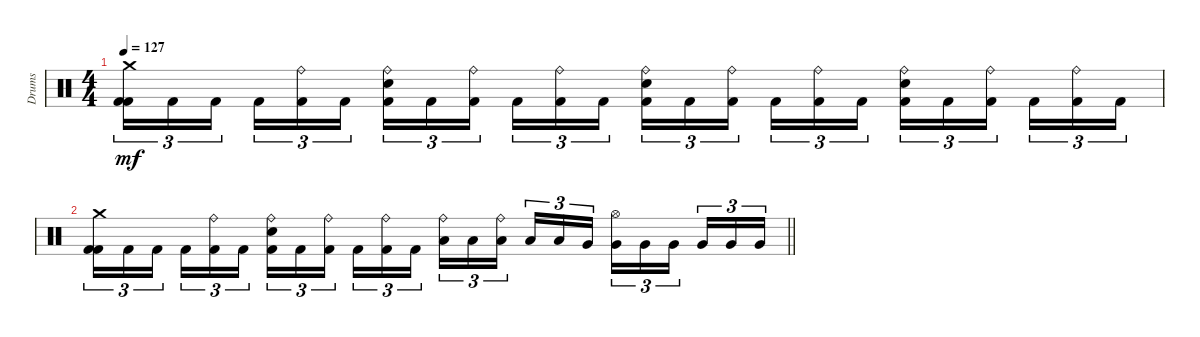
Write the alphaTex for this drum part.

\track ("Drums" "Drums") {instrument percussion}
\staff {score}
\articulation defaults
\ts (4 4)
\tempo 127
\clef neutral
\ks c
("Crash medium (hit)" "Kick (hit) 2" "Kick (hit) 2").16{tu (3 2) dy mf} "Kick (hit) 2".16{tu (3 2)} "Kick (hit) 2".16{tu (3 2) beam splitsecondary} "Kick (hit) 2".16{tu (3 2)} ("Ride (bell)" "Kick (hit) 2").16{tu (3 2)} "Kick (hit) 2".16{tu (3 2)} ("Ride (bell)" "Snare (hit) 2" "Kick (hit) 2").16{tu (3 2)} "Kick (hit) 2".16{tu (3 2)} ("Ride (bell)" "Kick (hit) 2").16{tu (3 2) beam splitsecondary} "Kick (hit) 2".16{tu (3 2)} ("Ride (bell)" "Kick (hit) 2").16{tu (3 2)} "Kick (hit) 2".16{tu (3 2)} ("Ride (bell)" "Snare (hit) 2" "Kick (hit) 2").16{tu (3 2)} "Kick (hit) 2".16{tu (3 2)} ("Ride (bell)" "Kick (hit) 2").16{tu (3 2) beam splitsecondary} "Kick (hit) 2".16{tu (3 2)} ("Ride (bell)" "Kick (hit) 2").16{tu (3 2)} "Kick (hit) 2".16{tu (3 2)} ("Ride (bell)" "Snare (hit) 2" "Kick (hit) 2").16{tu (3 2)} "Kick (hit) 2".16{tu (3 2)} ("Ride (bell)" "Kick (hit) 2").16{tu (3 2) beam splitsecondary} "Kick (hit) 2".16{tu (3 2)} ("Ride (bell)" "Kick (hit) 2").16{tu (3 2)} "Kick (hit) 2".16{tu (3 2)} |
\barLineRight lightlight
("Crash medium (hit)" "Kick (hit) 2" "Kick (hit) 2").16{tu (3 2)} "Kick (hit) 2".16{tu (3 2)} "Kick (hit) 2".16{tu (3 2) beam splitsecondary} "Kick (hit) 2".16{tu (3 2)} ("Ride (bell)" "Kick (hit) 2").16{tu (3 2)} "Kick (hit) 2".16{tu (3 2)} ("Ride (bell)" "Snare (hit) 2" "Kick (hit) 2").16{tu (3 2)} "Kick (hit) 2".16{tu (3 2)} ("Ride (bell)" "Kick (hit) 2").16{tu (3 2) beam splitsecondary} "Kick (hit) 2".16{tu (3 2)} ("Ride (bell)" "Kick (hit) 2").16{tu (3 2)} "Kick (hit) 2".16{tu (3 2)} ("Ride (bell)" "Low Tom (hit)").16{tu (3 2)} "Low Tom (hit)".16{tu (3 2)} ("Ride (bell)" "Low Tom (hit)").16{tu (3 2) beam splitsecondary} "Low Tom (hit)".16{tu (3 2)} "Low Tom (hit)".16{tu (3 2)} "Very Low Tom (hit)".16{tu (3 2)} ("Hi-Hat (open)" "Very Low Tom (hit)").16{tu (3 2)} "Very Low Tom (hit)".16{tu (3 2)} "Very Low Tom (hit)".16{tu (3 2) beam splitsecondary} "Very Low Tom (hit)".16{tu (3 2)} "Very Low Tom (hit)".16{tu (3 2)} "Very Low Tom (hit)".16{tu (3 2)}
